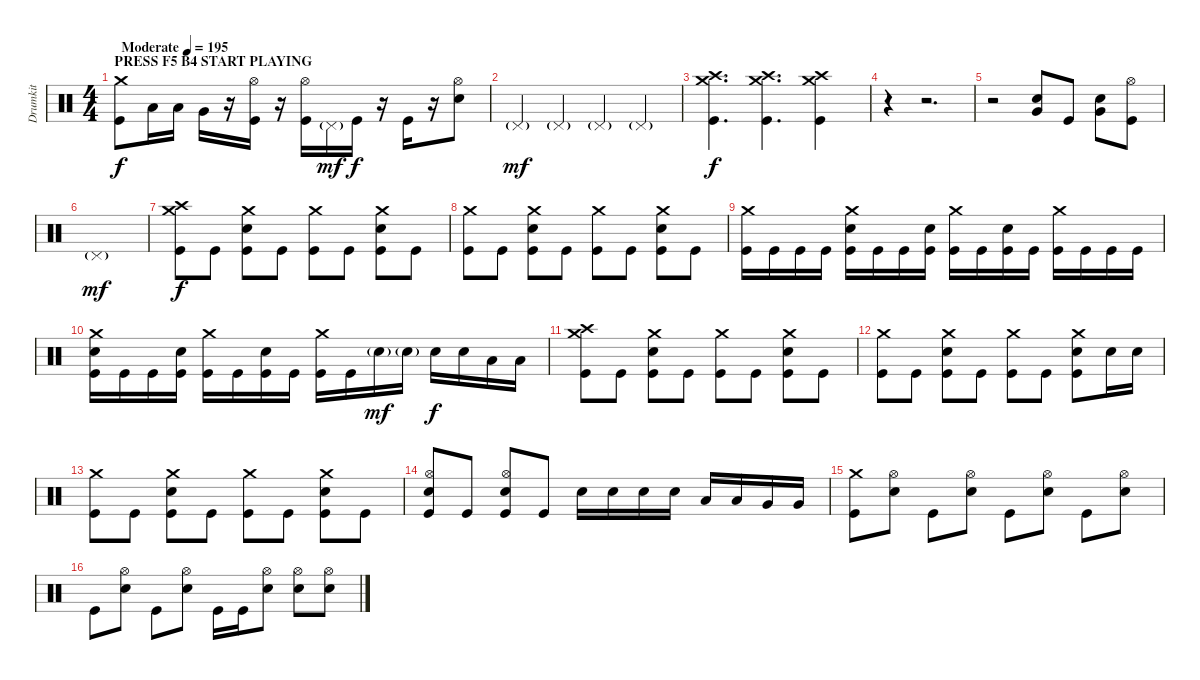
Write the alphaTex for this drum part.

\track ("Drumkit" "Drumkit") {instrument percussion}
\staff {score}
\articulation defaults
\ts (4 4)
\section ("" "PRESS F5 B4 START PLAYING")
\tempo (195 "Moderate")
\clef neutral
\ks c
("Crash medium (hit)" "Kick (hit)").8{dy f} "Low Tom (hit)".16 "Low Tom (hit)".16 "Very Low Tom (hit)".16 r.16 ("Hi-Hat (open)" "Kick (hit)").16 r.16 ("Hi-Hat (open)" "Kick (hit)").16 "Pedal Hi-Hat (hit)"{g}.16{dy mf} "Kick (hit)".16{dy f} r.16 "Kick (hit)".16 r.16 ("Hi-Hat (open)" "Snare (hit) 2").8 |
"Pedal Hi-Hat (hit)"{g}.4{dy mf} "Pedal Hi-Hat (hit)"{g}.4 "Pedal Hi-Hat (hit)"{g}.4 "Pedal Hi-Hat (hit)"{g}.4 |
("Crash medium (hit)" "Crash high (hit)" "Kick (hit)").4{d dy f} ("Crash medium (hit)" "Crash high (hit)" "Kick (hit)").4{d} ("Crash medium (hit)" "Crash high (hit)" "Kick (hit)").4 |
r.4 r.2{d} |
r.2 ("Very Low Tom (hit)" "Snare (hit) 2").8 "Kick (hit)".8 ("Very Low Tom (hit)" "Snare (hit) 2").8 ("Hi-Hat (open)" "Kick (hit)").8 |
"Pedal Hi-Hat (hit)"{g}.1{dy mf} |
("Crash medium (hit)" "Crash high (hit)" "Kick (hit)").8{dy f} "Kick (hit)".8 ("Crash medium (hit)" "Snare (hit) 2" "Kick (hit)").8 "Kick (hit)".8 ("Crash medium (hit)" "Kick (hit)").8 "Kick (hit)".8 ("Crash medium (hit)" "Snare (hit) 2" "Kick (hit)").8 "Kick (hit)".8 |
("Crash medium (hit)" "Kick (hit)").8 "Kick (hit)".8 ("Crash medium (hit)" "Snare (hit) 2" "Kick (hit)").8 "Kick (hit)".8 ("Crash medium (hit)" "Kick (hit)").8 "Kick (hit)".8 ("Crash medium (hit)" "Snare (hit) 2" "Kick (hit)").8 "Kick (hit)".8 |
("Crash medium (hit)" "Kick (hit)").16 "Kick (hit)".16 "Kick (hit)".16 "Kick (hit)".16 ("Crash medium (hit)" "Snare (hit) 2" "Kick (hit)").16 "Kick (hit)".16 "Kick (hit)".16 ("Snare (hit) 2" "Kick (hit)").16 ("Crash medium (hit)" "Kick (hit)").16 "Kick (hit)".16 ("Snare (hit) 2" "Kick (hit)").16 "Kick (hit)".16 ("Crash medium (hit)" "Kick (hit)").16 "Kick (hit)".16 "Kick (hit)".16 "Kick (hit)".16 |
("Crash medium (hit)" "Snare (hit) 2" "Kick (hit)").16 "Kick (hit)".16 "Kick (hit)".16 ("Snare (hit) 2" "Kick (hit)").16 ("Crash medium (hit)" "Kick (hit)").16 "Kick (hit)".16 ("Snare (hit) 2" "Kick (hit)").16 "Kick (hit)".16 ("Crash medium (hit)" "Kick (hit)").16 "Kick (hit)".16 "Snare (hit) 2"{g}.16{dy mf} "Snare (hit) 2"{g}.16 "Snare (hit) 2".16{dy f} "Snare (hit) 2".16 "Low Tom (hit)".16 "Low Tom (hit)".16 |
("Crash medium (hit)" "Crash high (hit)" "Kick (hit)").8 "Kick (hit)".8 ("Crash medium (hit)" "Snare (hit) 2" "Kick (hit)").8 "Kick (hit)".8 ("Crash medium (hit)" "Kick (hit)").8 "Kick (hit)".8 ("Crash medium (hit)" "Snare (hit) 2" "Kick (hit)").8 "Kick (hit)".8 |
("Crash medium (hit)" "Kick (hit)").8 "Kick (hit)".8 ("Crash medium (hit)" "Snare (hit) 2" "Kick (hit)").8 "Kick (hit)".8 ("Crash medium (hit)" "Kick (hit)").8 "Kick (hit)".8 ("Crash medium (hit)" "Snare (hit) 2" "Kick (hit)").8 "Snare (hit) 2".16 "Snare (hit) 2".16 |
("Crash medium (hit)" "Kick (hit)").8 "Kick (hit)".8 ("Crash medium (hit)" "Snare (hit) 2" "Kick (hit)").8 "Kick (hit)".8 ("Crash medium (hit)" "Kick (hit)").8 "Kick (hit)".8 ("Crash medium (hit)" "Snare (hit) 2" "Kick (hit)").8 "Kick (hit)".8 |
("Hi-Hat (open)" "Snare (hit) 2" "Kick (hit)").8 "Kick (hit)".8 ("Hi-Hat (open)" "Snare (hit) 2" "Kick (hit)").8 "Kick (hit)".8 "Snare (hit) 2".16 "Snare (hit) 2".16 "Snare (hit) 2".16 "Snare (hit) 2".16 "Low Tom (hit)".16 "Low Tom (hit)".16 "Very Low Tom (hit)".16 "Very Low Tom (hit)".16 |
("Crash medium (hit)" "Kick (hit)").8 ("Hi-Hat (open)" "Snare (hit) 2").8 "Kick (hit)".8 ("Hi-Hat (open)" "Snare (hit) 2").8 "Kick (hit)".8 ("Hi-Hat (open)" "Snare (hit) 2").8 "Kick (hit)".8 ("Hi-Hat (open)" "Snare (hit) 2").8 |
"Kick (hit)".8 ("Hi-Hat (open)" "Snare (hit) 2").8 "Kick (hit)".8 ("Hi-Hat (open)" "Snare (hit) 2").8 "Kick (hit)".16 "Kick (hit)".16 ("Hi-Hat (open)" "Snare (hit) 2").8 ("Hi-Hat (open)" "Snare (hit) 2").8 ("Hi-Hat (open)" "Snare (hit) 2").8
